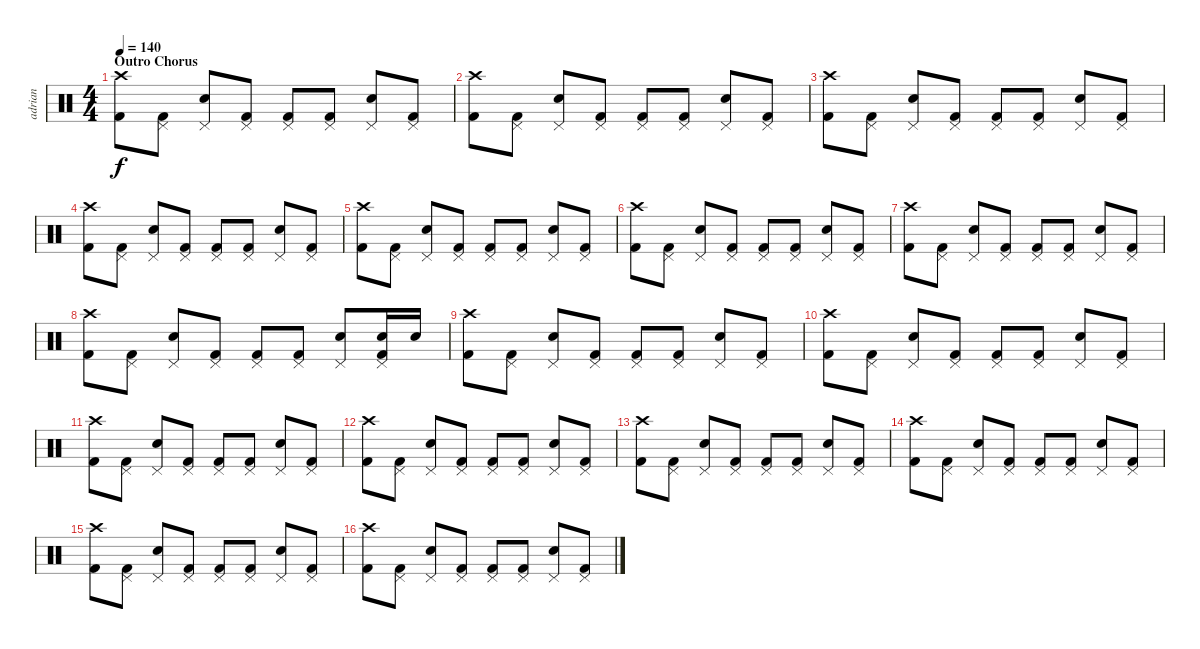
\track ("adrian" "adrian") {instrument percussion}
\staff {score}
\articulation defaults
\ts (4 4)
\section ("" "Outro Chorus")
\tempo 140
\clef neutral
\ks c
("Kick (hit) 2" "Crash high (hit)").8{dy f} ("Kick (hit) 2" "Pedal Hi-Hat (hit)").8 ("Electric Snare (hit)" "Pedal Hi-Hat (hit)").8 ("Kick (hit) 2" "Pedal Hi-Hat (hit)").8 ("Kick (hit) 2" "Pedal Hi-Hat (hit)").8 ("Kick (hit) 2" "Pedal Hi-Hat (hit)").8 ("Electric Snare (hit)" "Pedal Hi-Hat (hit)").8 ("Kick (hit) 2" "Pedal Hi-Hat (hit)").8 |
("Kick (hit) 2" "Crash high (hit)").8 ("Kick (hit) 2" "Pedal Hi-Hat (hit)").8 ("Electric Snare (hit)" "Pedal Hi-Hat (hit)").8 ("Kick (hit) 2" "Pedal Hi-Hat (hit)").8 ("Kick (hit) 2" "Pedal Hi-Hat (hit)").8 ("Kick (hit) 2" "Pedal Hi-Hat (hit)").8 ("Electric Snare (hit)" "Pedal Hi-Hat (hit)").8 ("Kick (hit) 2" "Pedal Hi-Hat (hit)").8 |
("Kick (hit) 2" "Crash high (hit)").8 ("Kick (hit) 2" "Pedal Hi-Hat (hit)").8 ("Electric Snare (hit)" "Pedal Hi-Hat (hit)").8 ("Kick (hit) 2" "Pedal Hi-Hat (hit)").8 ("Kick (hit) 2" "Pedal Hi-Hat (hit)").8 ("Kick (hit) 2" "Pedal Hi-Hat (hit)").8 ("Electric Snare (hit)" "Pedal Hi-Hat (hit)").8 ("Kick (hit) 2" "Pedal Hi-Hat (hit)").8 |
("Kick (hit) 2" "Crash high (hit)").8 ("Kick (hit) 2" "Pedal Hi-Hat (hit)").8 ("Electric Snare (hit)" "Pedal Hi-Hat (hit)").8 ("Kick (hit) 2" "Pedal Hi-Hat (hit)").8 ("Kick (hit) 2" "Pedal Hi-Hat (hit)").8 ("Kick (hit) 2" "Pedal Hi-Hat (hit)").8 ("Electric Snare (hit)" "Pedal Hi-Hat (hit)").8 ("Kick (hit) 2" "Pedal Hi-Hat (hit)").8 |
("Kick (hit) 2" "Crash high (hit)").8 ("Kick (hit) 2" "Pedal Hi-Hat (hit)").8 ("Electric Snare (hit)" "Pedal Hi-Hat (hit)").8 ("Kick (hit) 2" "Pedal Hi-Hat (hit)").8 ("Kick (hit) 2" "Pedal Hi-Hat (hit)").8 ("Kick (hit) 2" "Pedal Hi-Hat (hit)").8 ("Electric Snare (hit)" "Pedal Hi-Hat (hit)").8 ("Kick (hit) 2" "Pedal Hi-Hat (hit)").8 |
("Kick (hit) 2" "Crash high (hit)").8 ("Kick (hit) 2" "Pedal Hi-Hat (hit)").8 ("Electric Snare (hit)" "Pedal Hi-Hat (hit)").8 ("Kick (hit) 2" "Pedal Hi-Hat (hit)").8 ("Kick (hit) 2" "Pedal Hi-Hat (hit)").8 ("Kick (hit) 2" "Pedal Hi-Hat (hit)").8 ("Electric Snare (hit)" "Pedal Hi-Hat (hit)").8 ("Kick (hit) 2" "Pedal Hi-Hat (hit)").8 |
("Kick (hit) 2" "Crash high (hit)").8 ("Kick (hit) 2" "Pedal Hi-Hat (hit)").8 ("Electric Snare (hit)" "Pedal Hi-Hat (hit)").8 ("Kick (hit) 2" "Pedal Hi-Hat (hit)").8 ("Kick (hit) 2" "Pedal Hi-Hat (hit)").8 ("Kick (hit) 2" "Pedal Hi-Hat (hit)").8 ("Electric Snare (hit)" "Pedal Hi-Hat (hit)").8 ("Kick (hit) 2" "Pedal Hi-Hat (hit)").8 |
("Kick (hit) 2" "Crash high (hit)").8 ("Kick (hit) 2" "Pedal Hi-Hat (hit)").8 ("Electric Snare (hit)" "Pedal Hi-Hat (hit)").8 ("Kick (hit) 2" "Pedal Hi-Hat (hit)").8 ("Kick (hit) 2" "Pedal Hi-Hat (hit)").8 ("Kick (hit) 2" "Pedal Hi-Hat (hit)").8 ("Electric Snare (hit)" "Pedal Hi-Hat (hit)").8 ("Kick (hit) 2" "Electric Snare (hit)" "Pedal Hi-Hat (hit)").16 "Electric Snare (hit)".16 |
("Kick (hit) 2" "Crash high (hit)").8 ("Kick (hit) 2" "Pedal Hi-Hat (hit)").8 ("Electric Snare (hit)" "Pedal Hi-Hat (hit)").8 ("Kick (hit) 2" "Pedal Hi-Hat (hit)").8 ("Kick (hit) 2" "Pedal Hi-Hat (hit)").8 ("Kick (hit) 2" "Pedal Hi-Hat (hit)").8 ("Electric Snare (hit)" "Pedal Hi-Hat (hit)").8 ("Kick (hit) 2" "Pedal Hi-Hat (hit)").8 |
("Kick (hit) 2" "Crash high (hit)").8 ("Kick (hit) 2" "Pedal Hi-Hat (hit)").8 ("Electric Snare (hit)" "Pedal Hi-Hat (hit)").8 ("Kick (hit) 2" "Pedal Hi-Hat (hit)").8 ("Kick (hit) 2" "Pedal Hi-Hat (hit)").8 ("Kick (hit) 2" "Pedal Hi-Hat (hit)").8 ("Electric Snare (hit)" "Pedal Hi-Hat (hit)").8 ("Kick (hit) 2" "Pedal Hi-Hat (hit)").8 |
("Kick (hit) 2" "Crash high (hit)").8 ("Kick (hit) 2" "Pedal Hi-Hat (hit)").8 ("Electric Snare (hit)" "Pedal Hi-Hat (hit)").8 ("Kick (hit) 2" "Pedal Hi-Hat (hit)").8 ("Kick (hit) 2" "Pedal Hi-Hat (hit)").8 ("Kick (hit) 2" "Pedal Hi-Hat (hit)").8 ("Electric Snare (hit)" "Pedal Hi-Hat (hit)").8 ("Kick (hit) 2" "Pedal Hi-Hat (hit)").8 |
("Kick (hit) 2" "Crash high (hit)").8 ("Kick (hit) 2" "Pedal Hi-Hat (hit)").8 ("Electric Snare (hit)" "Pedal Hi-Hat (hit)").8 ("Kick (hit) 2" "Pedal Hi-Hat (hit)").8 ("Kick (hit) 2" "Pedal Hi-Hat (hit)").8 ("Kick (hit) 2" "Pedal Hi-Hat (hit)").8 ("Electric Snare (hit)" "Pedal Hi-Hat (hit)").8 ("Kick (hit) 2" "Pedal Hi-Hat (hit)").8 |
("Kick (hit) 2" "Crash high (hit)").8 ("Kick (hit) 2" "Pedal Hi-Hat (hit)").8 ("Electric Snare (hit)" "Pedal Hi-Hat (hit)").8 ("Kick (hit) 2" "Pedal Hi-Hat (hit)").8 ("Kick (hit) 2" "Pedal Hi-Hat (hit)").8 ("Kick (hit) 2" "Pedal Hi-Hat (hit)").8 ("Electric Snare (hit)" "Pedal Hi-Hat (hit)").8 ("Kick (hit) 2" "Pedal Hi-Hat (hit)").8 |
("Kick (hit) 2" "Crash high (hit)").8 ("Kick (hit) 2" "Pedal Hi-Hat (hit)").8 ("Electric Snare (hit)" "Pedal Hi-Hat (hit)").8 ("Kick (hit) 2" "Pedal Hi-Hat (hit)").8 ("Kick (hit) 2" "Pedal Hi-Hat (hit)").8 ("Kick (hit) 2" "Pedal Hi-Hat (hit)").8 ("Electric Snare (hit)" "Pedal Hi-Hat (hit)").8 ("Kick (hit) 2" "Pedal Hi-Hat (hit)").8 |
("Kick (hit) 2" "Crash high (hit)").8 ("Kick (hit) 2" "Pedal Hi-Hat (hit)").8 ("Electric Snare (hit)" "Pedal Hi-Hat (hit)").8 ("Kick (hit) 2" "Pedal Hi-Hat (hit)").8 ("Kick (hit) 2" "Pedal Hi-Hat (hit)").8 ("Kick (hit) 2" "Pedal Hi-Hat (hit)").8 ("Electric Snare (hit)" "Pedal Hi-Hat (hit)").8 ("Kick (hit) 2" "Pedal Hi-Hat (hit)").8 |
("Kick (hit) 2" "Crash high (hit)").8 ("Kick (hit) 2" "Pedal Hi-Hat (hit)").8 ("Electric Snare (hit)" "Pedal Hi-Hat (hit)").8 ("Kick (hit) 2" "Pedal Hi-Hat (hit)").8 ("Kick (hit) 2" "Pedal Hi-Hat (hit)").8 ("Kick (hit) 2" "Pedal Hi-Hat (hit)").8 ("Electric Snare (hit)" "Pedal Hi-Hat (hit)").8 ("Kick (hit) 2" "Pedal Hi-Hat (hit)").8
